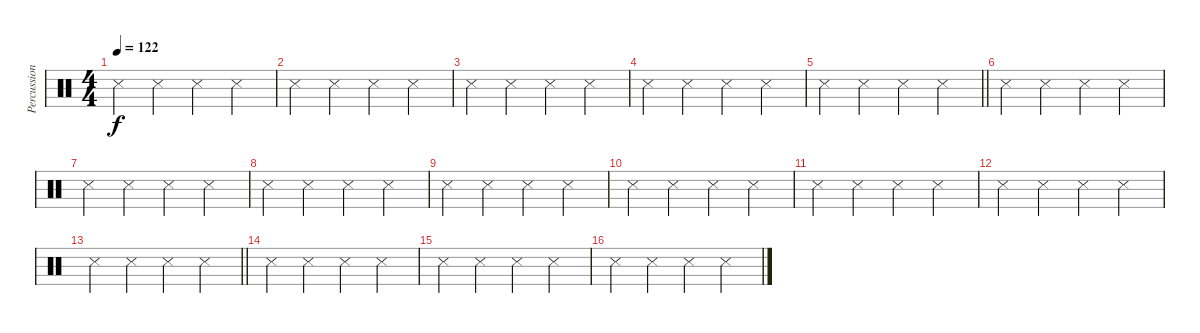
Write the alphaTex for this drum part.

\track ("Percussion" "Percussion") {instrument percussion}
\staff {score}
\articulation defaults
\ts (4 4)
\tempo 122
\clef neutral
\ks c "Snare (side stick) 3".4{dy f} "Metronome (hit)".4 "Metronome (hit)".4 "Metronome (hit)".4
|
"Snare (side stick) 3".4 "Metronome (hit)".4 "Metronome (hit)".4 "Metronome (hit)".4 |
"Snare (side stick) 3".4 "Metronome (hit)".4 "Metronome (hit)".4 "Metronome (hit)".4 |
"Snare (side stick) 3".4 "Metronome (hit)".4 "Metronome (hit)".4 "Metronome (hit)".4 |
\barLineRight lightlight "Snare (side stick) 3".4 "Metronome (hit)".4 "Metronome (hit)".4 "Metronome (hit)".4
|
"Snare (side stick) 3".4 "Metronome (hit)".4 "Metronome (hit)".4 "Metronome (hit)".4 |
"Snare (side stick) 3".4 "Metronome (hit)".4 "Metronome (hit)".4 "Metronome (hit)".4 |
"Snare (side stick) 3".4 "Metronome (hit)".4 "Metronome (hit)".4 "Metronome (hit)".4 |
"Snare (side stick) 3".4 "Metronome (hit)".4 "Metronome (hit)".4 "Metronome (hit)".4 |
"Snare (side stick) 3".4 "Metronome (hit)".4 "Metronome (hit)".4 "Metronome (hit)".4 |
"Snare (side stick) 3".4 "Metronome (hit)".4 "Metronome (hit)".4 "Metronome (hit)".4 |
"Snare (side stick) 3".4 "Metronome (hit)".4 "Metronome (hit)".4 "Metronome (hit)".4 |
\barLineRight lightlight "Snare (side stick) 3".4 "Metronome (hit)".4 "Metronome (hit)".4 "Metronome (hit)".4
|
"Snare (side stick) 3".4 "Metronome (hit)".4 "Metronome (hit)".4 "Metronome (hit)".4 |
"Snare (side stick) 3".4 "Metronome (hit)".4 "Metronome (hit)".4 "Metronome (hit)".4 |
"Snare (side stick) 3".4 "Metronome (hit)".4 "Metronome (hit)".4 "Metronome (hit)".4
